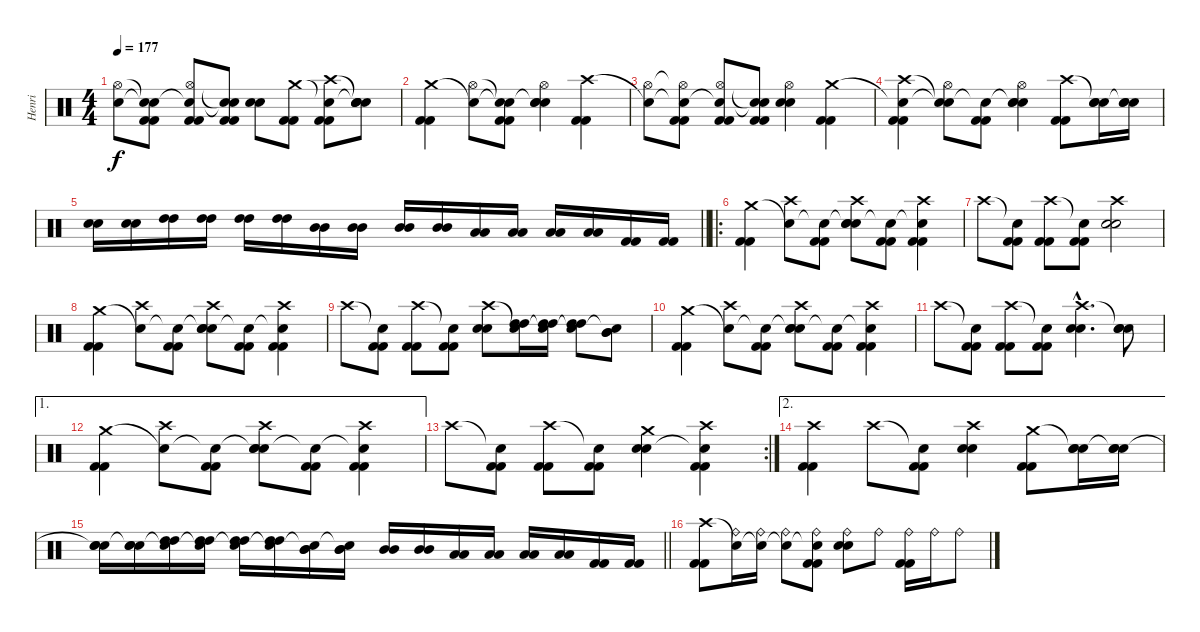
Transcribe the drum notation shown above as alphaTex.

\track ("Henri" "Henri") {instrument percussion}
\staff {score}
\articulation defaults
\ts (4 4)
\tempo 177
\clef neutral
\ks c
("Snare (hit)"{t} "Hi-Hat (open)").8{dy f} ("Snare (hit)"{t} "Snare (hit)"{t} "Kick (hit) 2" "Kick (hit) 2").8 ("Snare (hit)"{t} "Hi-Hat (open)" "Kick (hit) 2" "Kick (hit) 2").8 ("Snare (hit)"{t} "Snare (hit)"{t} "Kick (hit) 2" "Kick (hit) 2").8 ("Snare (hit) 2" "Snare (hit) 2").8 ("Crash medium (hit)" "Kick (hit) 2" "Kick (hit) 2").8 ("Snare (hit)"{t} "Crash high (hit)" "Kick (hit) 2" "Kick (hit) 2").8 ("Snare (hit)"{t} "Snare (hit)"{t} "Snare (hit) 2" "Snare (hit) 2").8 |
("Crash medium (hit)" "Kick (hit) 2" "Kick (hit) 2").4 ("Snare (hit)"{t} "Hi-Hat (open)").8 ("Snare (hit)"{t} "Snare (hit)"{t} "Kick (hit) 2" "Kick (hit) 2").8 ("Snare (hit)"{t} "Hi-Hat (open)" "Snare (hit) 2" "Snare (hit) 2").4 ("Crash high (hit)" "Kick (hit) 2" "Kick (hit) 2").4 |
("Snare (hit)"{t} "Hi-Hat (open)").8 ("Snare (hit)"{t} "Hi-Hat (open)"{t} "Kick (hit) 2" "Kick (hit) 2").8 ("Snare (hit)"{t} "Hi-Hat (open)" "Kick (hit) 2" "Kick (hit) 2").8 ("Snare (hit)"{t} "Snare (hit)"{t} "Kick (hit) 2" "Kick (hit) 2").8 ("Hi-Hat (open)" "Snare (hit) 2" "Snare (hit) 2").4 ("Crash medium (hit)" "Kick (hit) 2" "Kick (hit) 2").4 |
("Snare (hit)"{t} "Crash high (hit)" "Kick (hit) 2" "Kick (hit) 2").4 ("Snare (hit)"{t} "Snare (hit)"{t} "Hi-Hat (open)").8 ("Snare (hit)"{t} "Kick (hit) 2" "Kick (hit) 2").8 ("Snare (hit)"{t} "Hi-Hat (open)" "Snare (hit) 2" "Snare (hit) 2").4 ("Crash high (hit)" "Kick (hit) 2" "Kick (hit) 2").8 ("Snare (hit)"{t} "Snare (hit) 2" "Snare (hit) 2").16 ("Snare (hit)"{t} "Snare (hit) 2" "Snare (hit) 2").16 |
\barLineRight lightlight
("Snare (hit) 2" "Snare (hit) 2").16 ("Snare (hit) 2" "Snare (hit) 2").16 ("High Tom (hit)" "High Tom (hit)").16 ("High Tom (hit)" "High Tom (hit)").16 ("High Tom (hit)" "High Tom (hit)").16 ("High Tom (hit)" "High Tom (hit)").16 ("Mid Tom (hit)" "Mid Tom (hit)").16 ("Mid Tom (hit)" "Mid Tom (hit)").16 ("Mid Tom (hit)" "Mid Tom (hit)").16 ("Mid Tom (hit)" "Mid Tom (hit)").16 ("Low Tom (hit)" "Low Tom (hit)").16 ("Low Tom (hit)" "Low Tom (hit)").16 ("Low Tom (hit)" "Low Tom (hit)").16 ("Low Tom (hit)" "Low Tom (hit)").16 ("Kick (hit) 2" "Kick (hit) 2").16 ("Kick (hit) 2" "Kick (hit) 2").16 |
\ro
("Crash medium (hit)" "Kick (hit) 2" "Kick (hit) 2").4 ("Snare (hit)"{t} "Crash high (hit)").8 ("Snare (hit)"{t} "Kick (hit) 2" "Kick (hit) 2").8 ("Snare (hit)"{t} "Crash high (hit)" "Snare (hit) 2" "Snare (hit) 2").8 ("Snare (hit)"{t} "Kick (hit) 2" "Kick (hit) 2").8 ("Snare (hit)"{t} "Crash high (hit)" "Kick (hit) 2" "Kick (hit) 2").4 |
"Crash high (hit)".8 ("Snare (hit)"{t} "Kick (hit) 2" "Kick (hit) 2").8 ("Crash high (hit)" "Kick (hit) 2" "Kick (hit) 2").8 ("Snare (hit)"{t} "Kick (hit) 2" "Kick (hit) 2").8 ("Crash high (hit)" "Snare (hit) 2" "Snare (hit) 2").2 |
("Crash medium (hit)" "Kick (hit) 2" "Kick (hit) 2").4 ("Snare (hit)"{t} "Crash high (hit)").8 ("Snare (hit)"{t} "Kick (hit) 2" "Kick (hit) 2").8 ("Snare (hit)"{t} "Crash high (hit)" "Snare (hit) 2" "Snare (hit) 2").8 ("Snare (hit)"{t} "Kick (hit) 2" "Kick (hit) 2").8 ("Snare (hit)"{t} "Crash high (hit)" "Kick (hit) 2" "Kick (hit) 2").4 |
"Crash high (hit)".8 ("Snare (hit)"{t} "Kick (hit) 2" "Kick (hit) 2").8 ("Crash high (hit)" "Kick (hit) 2" "Kick (hit) 2").8 ("Snare (hit)"{t} "Kick (hit) 2" "Kick (hit) 2").8 ("Crash high (hit)" "Snare (hit) 2" "Snare (hit) 2").8 ("Snare (hit)"{t} "High Tom (hit)" "High Tom (hit)").16 ("Snare (hit)"{t} "High Tom (hit)" "High Tom (hit)").16 ("Snare (hit)"{t} "High Tom (hit)" "High Tom (hit)").8 ("Snare (hit)"{t} "Mid Tom (hit)" "Mid Tom (hit)").8 |
("Crash medium (hit)" "Kick (hit) 2" "Kick (hit) 2").4 ("Snare (hit)"{t} "Crash high (hit)").8 ("Snare (hit)"{t} "Kick (hit) 2" "Kick (hit) 2").8 ("Snare (hit)"{t} "Crash high (hit)" "Snare (hit) 2" "Snare (hit) 2").8 ("Snare (hit)"{t} "Kick (hit) 2" "Kick (hit) 2").8 ("Snare (hit)"{t} "Crash high (hit)" "Kick (hit) 2" "Kick (hit) 2").4 |
"Crash high (hit)".8 ("Snare (hit)"{t} "Kick (hit) 2" "Kick (hit) 2").8 ("Crash high (hit)" "Kick (hit) 2" "Kick (hit) 2").8 ("Snare (hit)"{t} "Kick (hit) 2" "Kick (hit) 2").8 ("Crash high (hit)"{hac} "Snare (hit) 2"{hac} "Snare (hit) 2"{hac}).4{d} ("Snare (hit)"{t} "Snare (hit) 2" "Snare (hit) 2").8 |
\ae 1
("Crash medium (hit)" "Kick (hit) 2" "Kick (hit) 2").4 ("Snare (hit)"{t} "Crash high (hit)").8 ("Snare (hit)"{t} "Kick (hit) 2" "Kick (hit) 2").8 ("Snare (hit)"{t} "Crash high (hit)" "Snare (hit) 2" "Snare (hit) 2").8 ("Snare (hit)"{t} "Kick (hit) 2" "Kick (hit) 2").8 ("Snare (hit)"{t} "Crash high (hit)" "Kick (hit) 2" "Kick (hit) 2").4 |
\rc 2 "Crash high (hit)".8
("Snare (hit)"{t} "Kick (hit) 2" "Kick (hit) 2").8 ("Crash high (hit)" "Kick (hit) 2" "Kick (hit) 2").8 ("Snare (hit)"{t} "Kick (hit) 2" "Kick (hit) 2").8 ("Crash medium (hit)" "Snare (hit) 2" "Snare (hit) 2").4 ("Crash high (hit)" "Snare (hit)"{t} "Kick (hit) 2" "Kick (hit) 2").4 |
\ae 2
("Crash high (hit)" "Kick (hit) 2" "Kick (hit) 2").4 "Crash high (hit)".8 ("Snare (hit)"{t} "Kick (hit) 2" "Kick (hit) 2").8 ("Crash high (hit)" "Snare (hit) 2" "Snare (hit) 2").4 ("Crash medium (hit)" "Kick (hit) 2" "Kick (hit) 2").8 ("Snare (hit)"{t} "Snare (hit) 2" "Snare (hit) 2").16 ("Snare (hit)"{t} "Snare (hit) 2" "Snare (hit) 2").16 |
\barLineRight lightlight
("Snare (hit)"{t} "Snare (hit) 2" "Snare (hit) 2").16 ("Snare (hit)"{t} "Snare (hit) 2" "Snare (hit) 2").16 ("Snare (hit)"{t} "High Tom (hit)" "High Tom (hit)").16 ("Snare (hit)"{t} "High Tom (hit)" "High Tom (hit)").16 ("Snare (hit)"{t} "High Tom (hit)" "High Tom (hit)").16 ("Snare (hit)"{t} "High Tom (hit)" "High Tom (hit)").16 ("Snare (hit)"{t} "Mid Tom (hit)" "Mid Tom (hit)").16 ("Snare (hit)"{t} "Mid Tom (hit)" "Mid Tom (hit)").16 ("Mid Tom (hit)" "Mid Tom (hit)").16 ("Mid Tom (hit)" "Mid Tom (hit)").16 ("Low Tom (hit)" "Low Tom (hit)").16 ("Low Tom (hit)" "Low Tom (hit)").16 ("Low Tom (hit)" "Low Tom (hit)").16 ("Low Tom (hit)" "Low Tom (hit)").16 ("Kick (hit) 2" "Kick (hit) 2").16 ("Kick (hit) 2" "Kick (hit) 2").16 |
("Crash high (hit)" "Kick (hit) 2" "Kick (hit) 2").8 ("Snare (hit)"{t} "Ride (bell)").16 ("Snare (hit)"{t} "Ride (bell)").16 ("Snare (hit)"{t} "Ride (bell)").8 ("Snare (hit)"{t} "Ride (bell)" "Kick (hit) 2" "Kick (hit) 2").8 ("Ride (bell)" "Snare (hit) 2" "Snare (hit) 2").8 "Ride (bell)".8 ("Ride (bell)" "Kick (hit) 2" "Kick (hit) 2").16 "Ride (bell)".16 "Ride (bell)".8
